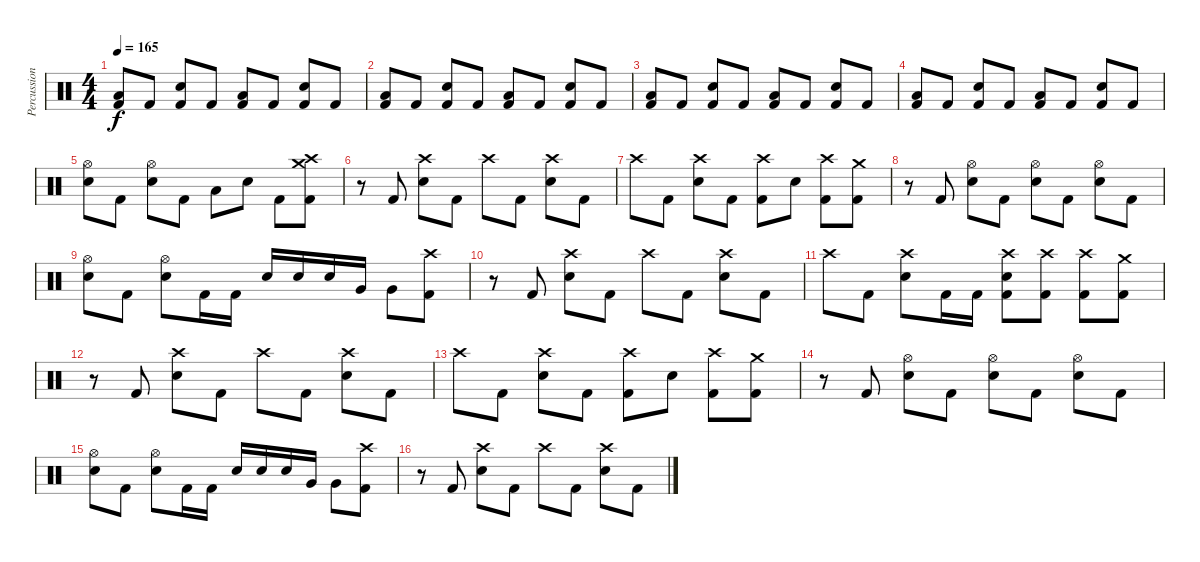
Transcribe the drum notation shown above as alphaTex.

\track ("Percussion" "Percussion") {instrument percussion}
\staff {score}
\articulation defaults
\ts (4 4)
\tempo 165
\clef neutral
\ks c
("Low Floor Tom (hit)" "Kick (hit) 2").8{dy f} "Kick (hit) 2".8 ("Electric Snare (hit)" "Kick (hit) 2").8 "Kick (hit) 2".8 ("Low Floor Tom (hit)" "Kick (hit) 2").8 "Kick (hit) 2".8 ("Electric Snare (hit)" "Kick (hit) 2").8 "Kick (hit) 2".8 |
("Low Floor Tom (hit)" "Kick (hit) 2").8 "Kick (hit) 2".8 ("Electric Snare (hit)" "Kick (hit) 2").8 "Kick (hit) 2".8 ("Low Floor Tom (hit)" "Kick (hit) 2").8 "Kick (hit) 2".8 ("Electric Snare (hit)" "Kick (hit) 2").8 "Kick (hit) 2".8 |
("Low Floor Tom (hit)" "Kick (hit) 2").8 "Kick (hit) 2".8 ("Electric Snare (hit)" "Kick (hit) 2").8 "Kick (hit) 2".8 ("Low Floor Tom (hit)" "Kick (hit) 2").8 "Kick (hit) 2".8 ("Electric Snare (hit)" "Kick (hit) 2").8 "Kick (hit) 2".8 |
("Low Floor Tom (hit)" "Kick (hit) 2").8 "Kick (hit) 2".8 ("Electric Snare (hit)" "Kick (hit) 2").8 "Kick (hit) 2".8 ("Low Floor Tom (hit)" "Kick (hit) 2").8 "Kick (hit) 2".8 ("Electric Snare (hit)" "Kick (hit) 2").8 "Kick (hit) 2".8 |
("Hi-Hat (open)" "Electric Snare (hit)").8 "Kick (hit) 2".8 ("Hi-Hat (open)" "Electric Snare (hit)").8 "Kick (hit) 2".8 "Low Tom (hit)".8 "Electric Snare (hit)".8 "Kick (hit) 2".8 ("Crash medium (hit)" "Crash high (hit)" "Kick (hit) 2").8 |
r.8 "Kick (hit) 2".8 ("Crash high (hit)" "Electric Snare (hit)").8 "Kick (hit) 2".8 "Crash high (hit)".8 "Kick (hit) 2".8 ("Crash high (hit)" "Electric Snare (hit)").8 "Kick (hit) 2".8 |
"Crash high (hit)".8 "Kick (hit) 2".8 ("Crash high (hit)" "Electric Snare (hit)").8 "Kick (hit) 2".8 ("Crash high (hit)" "Kick (hit) 2").8 "Electric Snare (hit)".8 ("Crash high (hit)" "Kick (hit) 2").8 ("Crash medium (hit)" "Kick (hit) 2").8 |
r.8 "Kick (hit) 2".8 ("Hi-Hat (open)" "Electric Snare (hit)").8 "Kick (hit) 2".8 ("Hi-Hat (open)" "Electric Snare (hit)").8 "Kick (hit) 2".8 ("Hi-Hat (open)" "Electric Snare (hit)").8 "Kick (hit) 2".8 |
("Hi-Hat (open)" "Electric Snare (hit)").8 "Kick (hit) 2".8 ("Hi-Hat (open)" "Electric Snare (hit)").8 "Kick (hit) 2".16 "Kick (hit) 2".16 "Electric Snare (hit)".16 "Electric Snare (hit)".16 "Electric Snare (hit)".16 "Very Low Tom (hit)".16 "Very Low Tom (hit)".8 ("Crash high (hit)" "Kick (hit) 2").8 |
r.8 "Kick (hit) 2".8 ("Crash high (hit)" "Electric Snare (hit)").8 "Kick (hit) 2".8 "Crash high (hit)".8 "Kick (hit) 2".8 ("Crash high (hit)" "Electric Snare (hit)").8 "Kick (hit) 2".8 |
"Crash high (hit)".8 "Kick (hit) 2".8 ("Crash high (hit)" "Electric Snare (hit)").8 "Kick (hit) 2".16 "Kick (hit) 2".16 ("Crash high (hit)" "Electric Snare (hit)" "Kick (hit) 2").8 ("Crash high (hit)" "Kick (hit) 2").8 ("Crash high (hit)" "Kick (hit) 2").8 ("Crash medium (hit)" "Kick (hit) 2").8 |
r.8 "Kick (hit) 2".8 ("Crash high (hit)" "Electric Snare (hit)").8 "Kick (hit) 2".8 "Crash high (hit)".8 "Kick (hit) 2".8 ("Crash high (hit)" "Electric Snare (hit)").8 "Kick (hit) 2".8 |
"Crash high (hit)".8 "Kick (hit) 2".8 ("Crash high (hit)" "Electric Snare (hit)").8 "Kick (hit) 2".8 ("Crash high (hit)" "Kick (hit) 2").8 "Electric Snare (hit)".8 ("Crash high (hit)" "Kick (hit) 2").8 ("Crash medium (hit)" "Kick (hit) 2").8 |
r.8 "Kick (hit) 2".8 ("Hi-Hat (open)" "Electric Snare (hit)").8 "Kick (hit) 2".8 ("Hi-Hat (open)" "Electric Snare (hit)").8 "Kick (hit) 2".8 ("Hi-Hat (open)" "Electric Snare (hit)").8 "Kick (hit) 2".8 |
("Hi-Hat (open)" "Electric Snare (hit)").8 "Kick (hit) 2".8 ("Hi-Hat (open)" "Electric Snare (hit)").8 "Kick (hit) 2".16 "Kick (hit) 2".16 "Electric Snare (hit)".16 "Electric Snare (hit)".16 "Electric Snare (hit)".16 "Very Low Tom (hit)".16 "Very Low Tom (hit)".8 ("Crash high (hit)" "Kick (hit) 2").8 |
r.8 "Kick (hit) 2".8 ("Crash high (hit)" "Electric Snare (hit)").8 "Kick (hit) 2".8 "Crash high (hit)".8 "Kick (hit) 2".8 ("Crash high (hit)" "Electric Snare (hit)").8 "Kick (hit) 2".8
